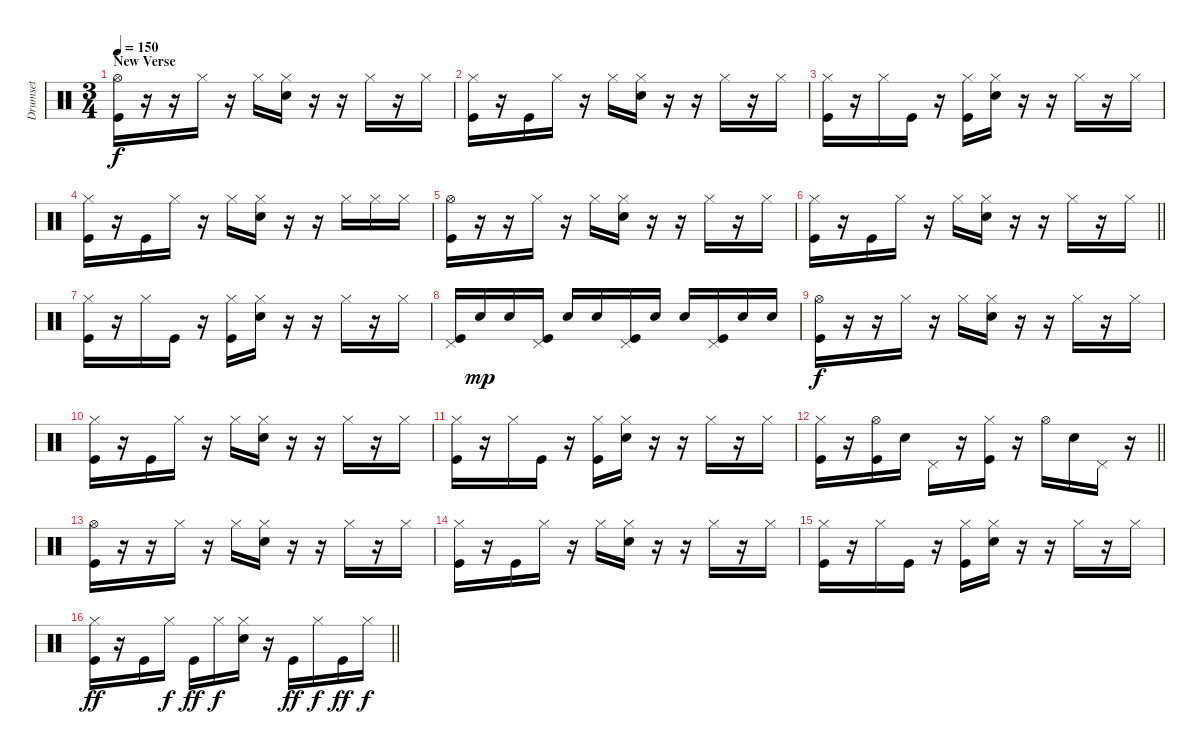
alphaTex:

\track ("Drumset" "Drumset") {instrument percussion}
\staff {score}
\articulation defaults
\ts (3 4)
\section ("" "New Verse")
\tempo 150
\clef neutral
\ks c
("Hi-Hat (open)" "Kick (hit)").16{dy f} r.16 r.16 "Hi-Hat (closed)".16 r.16 "Hi-Hat (closed)".16 ("Hi-Hat (closed)" "Snare (hit) 2").16 r.16 r.16 "Hi-Hat (closed)".16 r.16 "Hi-Hat (closed)".16 |
("Hi-Hat (closed)" "Kick (hit)").16 r.16 "Kick (hit)".16 "Hi-Hat (closed)".16 r.16 "Hi-Hat (closed)".16 ("Hi-Hat (closed)" "Snare (hit) 2").16 r.16 r.16 "Hi-Hat (closed)".16 r.16 "Hi-Hat (closed)".16 |
("Hi-Hat (closed)" "Kick (hit)").16 r.16 "Hi-Hat (closed)".16 "Kick (hit)".16 r.16 ("Hi-Hat (closed)" "Kick (hit)").16 ("Hi-Hat (closed)" "Snare (hit) 2").16 r.16 r.16 "Hi-Hat (closed)".16 r.16 "Hi-Hat (closed)".16 |
("Hi-Hat (closed)" "Kick (hit)").16 r.16 "Kick (hit)".16 "Hi-Hat (closed)".16 r.16 "Hi-Hat (closed)".16 ("Hi-Hat (closed)" "Snare (hit) 2").16 r.16 r.16 "Hi-Hat (closed)".16 "Hi-Hat (closed)".16 "Hi-Hat (closed)".16 |
("Hi-Hat (open)" "Kick (hit)").16 r.16 r.16 "Hi-Hat (closed)".16 r.16 "Hi-Hat (closed)".16 ("Hi-Hat (closed)" "Snare (hit) 2").16 r.16 r.16 "Hi-Hat (closed)".16 r.16 "Hi-Hat (closed)".16 |
\barLineRight lightlight
("Hi-Hat (closed)" "Kick (hit)").16 r.16 "Kick (hit)".16 "Hi-Hat (closed)".16 r.16 "Hi-Hat (closed)".16 ("Hi-Hat (closed)" "Snare (hit) 2").16 r.16 r.16 "Hi-Hat (closed)".16 r.16 "Hi-Hat (closed)".16 |
("Hi-Hat (closed)" "Kick (hit)").16 r.16 "Hi-Hat (closed)".16 "Kick (hit)".16 r.16 ("Hi-Hat (closed)" "Kick (hit)").16 ("Hi-Hat (closed)" "Snare (hit) 2").16 r.16 r.16 "Hi-Hat (closed)".16 r.16 "Hi-Hat (closed)".16 |
("Pedal Hi-Hat (hit)" "Kick (hit)").16 "Snare (hit) 2".16{dy mp} "Snare (hit) 2".16 ("Pedal Hi-Hat (hit)" "Kick (hit)").16 "Snare (hit) 2".16 "Snare (hit) 2".16 ("Pedal Hi-Hat (hit)" "Kick (hit)").16 "Snare (hit) 2".16 "Snare (hit) 2".16 ("Pedal Hi-Hat (hit)" "Kick (hit)").16 "Snare (hit) 2".16 "Snare (hit) 2".16 |
("Hi-Hat (open)" "Kick (hit)").16{dy f} r.16 r.16 "Hi-Hat (closed)".16 r.16 "Hi-Hat (closed)".16 ("Hi-Hat (closed)" "Snare (hit) 2").16 r.16 r.16 "Hi-Hat (closed)".16 r.16 "Hi-Hat (closed)".16 |
("Hi-Hat (closed)" "Kick (hit)").16 r.16 "Kick (hit)".16 "Hi-Hat (closed)".16 r.16 "Hi-Hat (closed)".16 ("Hi-Hat (closed)" "Snare (hit) 2").16 r.16 r.16 "Hi-Hat (closed)".16 r.16 "Hi-Hat (closed)".16 |
("Hi-Hat (closed)" "Kick (hit)").16 r.16 "Hi-Hat (closed)".16 "Kick (hit)".16 r.16 ("Hi-Hat (closed)" "Kick (hit)").16 ("Hi-Hat (closed)" "Snare (hit) 2").16 r.16 r.16 "Hi-Hat (closed)".16 r.16 "Hi-Hat (closed)".16 |
\barLineRight lightlight
("Hi-Hat (closed)" "Kick (hit)").16 r.16 ("Hi-Hat (open)" "Kick (hit)").16 "Snare (hit) 2".16 "Pedal Hi-Hat (hit)".16 r.16 ("Hi-Hat (closed)" "Kick (hit)").16 r.16 "Hi-Hat (open)".16 "Snare (hit) 2".16 "Pedal Hi-Hat (hit)".16 r.16 |
("Hi-Hat (open)" "Kick (hit)").16 r.16 r.16 "Hi-Hat (closed)".16 r.16 "Hi-Hat (closed)".16 ("Hi-Hat (closed)" "Snare (hit) 2").16 r.16 r.16 "Hi-Hat (closed)".16 r.16 "Hi-Hat (closed)".16 |
("Hi-Hat (closed)" "Kick (hit)").16 r.16 "Kick (hit)".16 "Hi-Hat (closed)".16 r.16 "Hi-Hat (closed)".16 ("Hi-Hat (closed)" "Snare (hit) 2").16 r.16 r.16 "Hi-Hat (closed)".16 r.16 "Hi-Hat (closed)".16 |
("Hi-Hat (closed)" "Kick (hit)").16 r.16 "Hi-Hat (closed)".16 "Kick (hit)".16 r.16 ("Hi-Hat (closed)" "Kick (hit)").16 ("Hi-Hat (closed)" "Snare (hit) 2").16 r.16 r.16 "Hi-Hat (closed)".16 r.16 "Hi-Hat (closed)".16 |
\barLineRight lightlight
("Hi-Hat (closed)" "Kick (hit)").16{dy ff} r.16 "Kick (hit)".16 "Hi-Hat (closed)".16{dy f} "Kick (hit)".16{dy ff} "Hi-Hat (closed)".16{dy f} ("Hi-Hat (closed)" "Snare (hit) 2").16 r.16 "Kick (hit)".16{dy ff} "Hi-Hat (closed)".16{dy f} "Kick (hit)".16{dy ff} "Hi-Hat (closed)".16{dy f}
